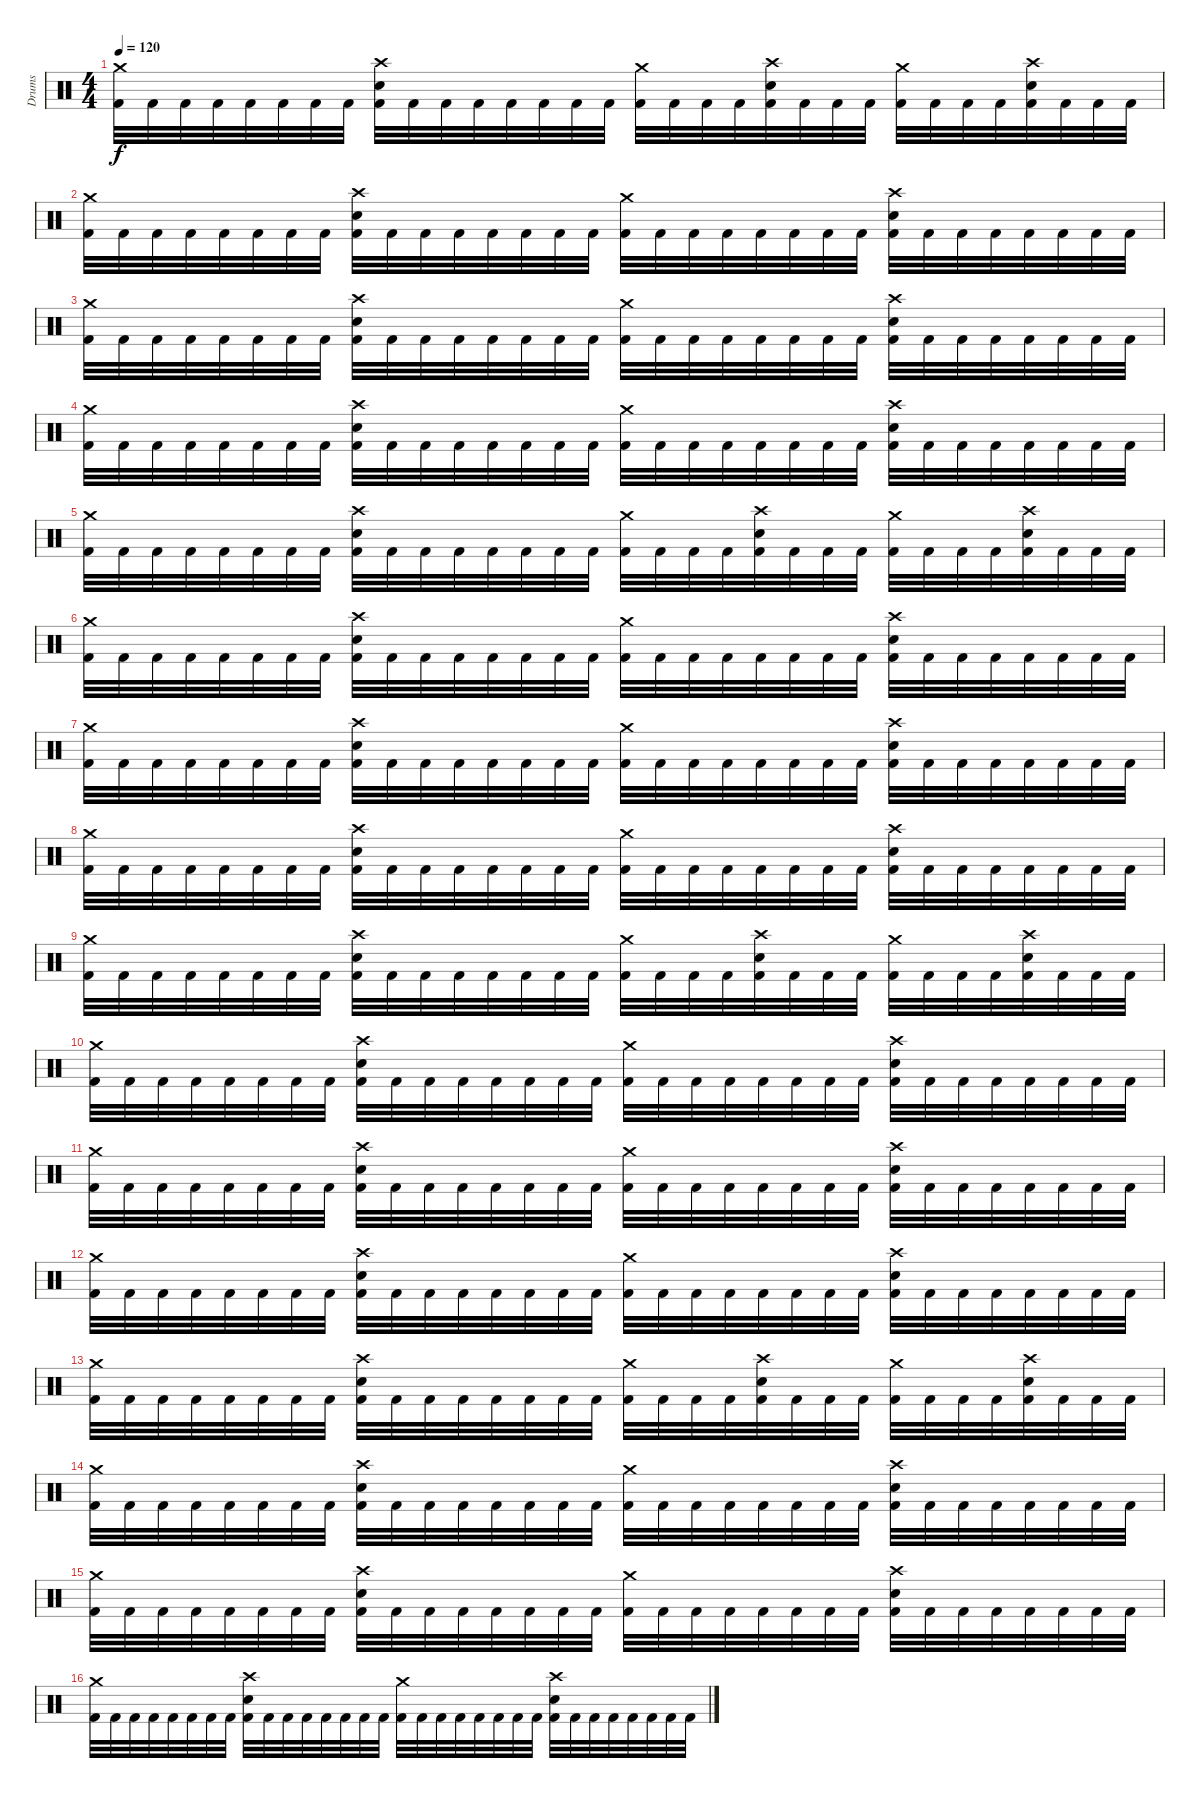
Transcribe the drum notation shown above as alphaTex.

\track ("Drums" "Drums") {instrument percussion}
\staff {score}
\articulation defaults
\ts (4 4)
\tempo 120
\clef neutral
\ks c
("Kick (hit) 2" "Crash medium (hit)").32{dy f} "Kick (hit) 2".32 "Kick (hit) 2".32 "Kick (hit) 2".32 "Kick (hit) 2".32 "Kick (hit) 2".32 "Kick (hit) 2".32 "Kick (hit) 2".32 ("Kick (hit) 2" "Electric Snare (hit)" "Crash high (hit)").32 "Kick (hit) 2".32 "Kick (hit) 2".32 "Kick (hit) 2".32 "Kick (hit) 2".32 "Kick (hit) 2".32 "Kick (hit) 2".32 "Kick (hit) 2".32 ("Kick (hit) 2" "Crash medium (hit)").32 "Kick (hit) 2".32 "Kick (hit) 2".32 "Kick (hit) 2".32 ("Kick (hit) 2" "Electric Snare (hit)" "Crash high (hit)").32 "Kick (hit) 2".32 "Kick (hit) 2".32 "Kick (hit) 2".32 ("Kick (hit) 2" "Crash medium (hit)").32 "Kick (hit) 2".32 "Kick (hit) 2".32 "Kick (hit) 2".32 ("Kick (hit) 2" "Electric Snare (hit)" "Crash high (hit)").32 "Kick (hit) 2".32 "Kick (hit) 2".32 "Kick (hit) 2".32 |
("Kick (hit) 2" "Crash medium (hit)").32 "Kick (hit) 2".32 "Kick (hit) 2".32 "Kick (hit) 2".32 "Kick (hit) 2".32 "Kick (hit) 2".32 "Kick (hit) 2".32 "Kick (hit) 2".32 ("Kick (hit) 2" "Electric Snare (hit)" "Crash high (hit)").32 "Kick (hit) 2".32 "Kick (hit) 2".32 "Kick (hit) 2".32 "Kick (hit) 2".32 "Kick (hit) 2".32 "Kick (hit) 2".32 "Kick (hit) 2".32 ("Kick (hit) 2" "Crash medium (hit)").32 "Kick (hit) 2".32 "Kick (hit) 2".32 "Kick (hit) 2".32 "Kick (hit) 2".32 "Kick (hit) 2".32 "Kick (hit) 2".32 "Kick (hit) 2".32 ("Kick (hit) 2" "Electric Snare (hit)" "Crash high (hit)").32 "Kick (hit) 2".32 "Kick (hit) 2".32 "Kick (hit) 2".32 "Kick (hit) 2".32 "Kick (hit) 2".32 "Kick (hit) 2".32 "Kick (hit) 2".32 |
("Kick (hit) 2" "Crash medium (hit)").32 "Kick (hit) 2".32 "Kick (hit) 2".32 "Kick (hit) 2".32 "Kick (hit) 2".32 "Kick (hit) 2".32 "Kick (hit) 2".32 "Kick (hit) 2".32 ("Kick (hit) 2" "Electric Snare (hit)" "Crash high (hit)").32 "Kick (hit) 2".32 "Kick (hit) 2".32 "Kick (hit) 2".32 "Kick (hit) 2".32 "Kick (hit) 2".32 "Kick (hit) 2".32 "Kick (hit) 2".32 ("Kick (hit) 2" "Crash medium (hit)").32 "Kick (hit) 2".32 "Kick (hit) 2".32 "Kick (hit) 2".32 "Kick (hit) 2".32 "Kick (hit) 2".32 "Kick (hit) 2".32 "Kick (hit) 2".32 ("Kick (hit) 2" "Electric Snare (hit)" "Crash high (hit)").32 "Kick (hit) 2".32 "Kick (hit) 2".32 "Kick (hit) 2".32 "Kick (hit) 2".32 "Kick (hit) 2".32 "Kick (hit) 2".32 "Kick (hit) 2".32 |
("Kick (hit) 2" "Crash medium (hit)").32 "Kick (hit) 2".32 "Kick (hit) 2".32 "Kick (hit) 2".32 "Kick (hit) 2".32 "Kick (hit) 2".32 "Kick (hit) 2".32 "Kick (hit) 2".32 ("Kick (hit) 2" "Electric Snare (hit)" "Crash high (hit)").32 "Kick (hit) 2".32 "Kick (hit) 2".32 "Kick (hit) 2".32 "Kick (hit) 2".32 "Kick (hit) 2".32 "Kick (hit) 2".32 "Kick (hit) 2".32 ("Kick (hit) 2" "Crash medium (hit)").32 "Kick (hit) 2".32 "Kick (hit) 2".32 "Kick (hit) 2".32 "Kick (hit) 2".32 "Kick (hit) 2".32 "Kick (hit) 2".32 "Kick (hit) 2".32 ("Kick (hit) 2" "Electric Snare (hit)" "Crash high (hit)").32 "Kick (hit) 2".32 "Kick (hit) 2".32 "Kick (hit) 2".32 "Kick (hit) 2".32 "Kick (hit) 2".32 "Kick (hit) 2".32 "Kick (hit) 2".32 |
("Kick (hit) 2" "Crash medium (hit)").32 "Kick (hit) 2".32 "Kick (hit) 2".32 "Kick (hit) 2".32 "Kick (hit) 2".32 "Kick (hit) 2".32 "Kick (hit) 2".32 "Kick (hit) 2".32 ("Kick (hit) 2" "Electric Snare (hit)" "Crash high (hit)").32 "Kick (hit) 2".32 "Kick (hit) 2".32 "Kick (hit) 2".32 "Kick (hit) 2".32 "Kick (hit) 2".32 "Kick (hit) 2".32 "Kick (hit) 2".32 ("Kick (hit) 2" "Crash medium (hit)").32 "Kick (hit) 2".32 "Kick (hit) 2".32 "Kick (hit) 2".32 ("Kick (hit) 2" "Electric Snare (hit)" "Crash high (hit)").32 "Kick (hit) 2".32 "Kick (hit) 2".32 "Kick (hit) 2".32 ("Kick (hit) 2" "Crash medium (hit)").32 "Kick (hit) 2".32 "Kick (hit) 2".32 "Kick (hit) 2".32 ("Kick (hit) 2" "Electric Snare (hit)" "Crash high (hit)").32 "Kick (hit) 2".32 "Kick (hit) 2".32 "Kick (hit) 2".32 |
("Kick (hit) 2" "Crash medium (hit)").32 "Kick (hit) 2".32 "Kick (hit) 2".32 "Kick (hit) 2".32 "Kick (hit) 2".32 "Kick (hit) 2".32 "Kick (hit) 2".32 "Kick (hit) 2".32 ("Kick (hit) 2" "Electric Snare (hit)" "Crash high (hit)").32 "Kick (hit) 2".32 "Kick (hit) 2".32 "Kick (hit) 2".32 "Kick (hit) 2".32 "Kick (hit) 2".32 "Kick (hit) 2".32 "Kick (hit) 2".32 ("Kick (hit) 2" "Crash medium (hit)").32 "Kick (hit) 2".32 "Kick (hit) 2".32 "Kick (hit) 2".32 "Kick (hit) 2".32 "Kick (hit) 2".32 "Kick (hit) 2".32 "Kick (hit) 2".32 ("Kick (hit) 2" "Electric Snare (hit)" "Crash high (hit)").32 "Kick (hit) 2".32 "Kick (hit) 2".32 "Kick (hit) 2".32 "Kick (hit) 2".32 "Kick (hit) 2".32 "Kick (hit) 2".32 "Kick (hit) 2".32 |
("Kick (hit) 2" "Crash medium (hit)").32 "Kick (hit) 2".32 "Kick (hit) 2".32 "Kick (hit) 2".32 "Kick (hit) 2".32 "Kick (hit) 2".32 "Kick (hit) 2".32 "Kick (hit) 2".32 ("Kick (hit) 2" "Electric Snare (hit)" "Crash high (hit)").32 "Kick (hit) 2".32 "Kick (hit) 2".32 "Kick (hit) 2".32 "Kick (hit) 2".32 "Kick (hit) 2".32 "Kick (hit) 2".32 "Kick (hit) 2".32 ("Kick (hit) 2" "Crash medium (hit)").32 "Kick (hit) 2".32 "Kick (hit) 2".32 "Kick (hit) 2".32 "Kick (hit) 2".32 "Kick (hit) 2".32 "Kick (hit) 2".32 "Kick (hit) 2".32 ("Kick (hit) 2" "Electric Snare (hit)" "Crash high (hit)").32 "Kick (hit) 2".32 "Kick (hit) 2".32 "Kick (hit) 2".32 "Kick (hit) 2".32 "Kick (hit) 2".32 "Kick (hit) 2".32 "Kick (hit) 2".32 |
("Kick (hit) 2" "Crash medium (hit)").32 "Kick (hit) 2".32 "Kick (hit) 2".32 "Kick (hit) 2".32 "Kick (hit) 2".32 "Kick (hit) 2".32 "Kick (hit) 2".32 "Kick (hit) 2".32 ("Kick (hit) 2" "Electric Snare (hit)" "Crash high (hit)").32 "Kick (hit) 2".32 "Kick (hit) 2".32 "Kick (hit) 2".32 "Kick (hit) 2".32 "Kick (hit) 2".32 "Kick (hit) 2".32 "Kick (hit) 2".32 ("Kick (hit) 2" "Crash medium (hit)").32 "Kick (hit) 2".32 "Kick (hit) 2".32 "Kick (hit) 2".32 "Kick (hit) 2".32 "Kick (hit) 2".32 "Kick (hit) 2".32 "Kick (hit) 2".32 ("Kick (hit) 2" "Electric Snare (hit)" "Crash high (hit)").32 "Kick (hit) 2".32 "Kick (hit) 2".32 "Kick (hit) 2".32 "Kick (hit) 2".32 "Kick (hit) 2".32 "Kick (hit) 2".32 "Kick (hit) 2".32 |
("Kick (hit) 2" "Crash medium (hit)").32 "Kick (hit) 2".32 "Kick (hit) 2".32 "Kick (hit) 2".32 "Kick (hit) 2".32 "Kick (hit) 2".32 "Kick (hit) 2".32 "Kick (hit) 2".32 ("Kick (hit) 2" "Electric Snare (hit)" "Crash high (hit)").32 "Kick (hit) 2".32 "Kick (hit) 2".32 "Kick (hit) 2".32 "Kick (hit) 2".32 "Kick (hit) 2".32 "Kick (hit) 2".32 "Kick (hit) 2".32 ("Kick (hit) 2" "Crash medium (hit)").32 "Kick (hit) 2".32 "Kick (hit) 2".32 "Kick (hit) 2".32 ("Kick (hit) 2" "Electric Snare (hit)" "Crash high (hit)").32 "Kick (hit) 2".32 "Kick (hit) 2".32 "Kick (hit) 2".32 ("Kick (hit) 2" "Crash medium (hit)").32 "Kick (hit) 2".32 "Kick (hit) 2".32 "Kick (hit) 2".32 ("Kick (hit) 2" "Electric Snare (hit)" "Crash high (hit)").32 "Kick (hit) 2".32 "Kick (hit) 2".32 "Kick (hit) 2".32 |
("Kick (hit) 2" "Crash medium (hit)").32 "Kick (hit) 2".32 "Kick (hit) 2".32 "Kick (hit) 2".32 "Kick (hit) 2".32 "Kick (hit) 2".32 "Kick (hit) 2".32 "Kick (hit) 2".32 ("Kick (hit) 2" "Electric Snare (hit)" "Crash high (hit)").32 "Kick (hit) 2".32 "Kick (hit) 2".32 "Kick (hit) 2".32 "Kick (hit) 2".32 "Kick (hit) 2".32 "Kick (hit) 2".32 "Kick (hit) 2".32 ("Kick (hit) 2" "Crash medium (hit)").32 "Kick (hit) 2".32 "Kick (hit) 2".32 "Kick (hit) 2".32 "Kick (hit) 2".32 "Kick (hit) 2".32 "Kick (hit) 2".32 "Kick (hit) 2".32 ("Kick (hit) 2" "Electric Snare (hit)" "Crash high (hit)").32 "Kick (hit) 2".32 "Kick (hit) 2".32 "Kick (hit) 2".32 "Kick (hit) 2".32 "Kick (hit) 2".32 "Kick (hit) 2".32 "Kick (hit) 2".32 |
("Kick (hit) 2" "Crash medium (hit)").32 "Kick (hit) 2".32 "Kick (hit) 2".32 "Kick (hit) 2".32 "Kick (hit) 2".32 "Kick (hit) 2".32 "Kick (hit) 2".32 "Kick (hit) 2".32 ("Kick (hit) 2" "Electric Snare (hit)" "Crash high (hit)").32 "Kick (hit) 2".32 "Kick (hit) 2".32 "Kick (hit) 2".32 "Kick (hit) 2".32 "Kick (hit) 2".32 "Kick (hit) 2".32 "Kick (hit) 2".32 ("Kick (hit) 2" "Crash medium (hit)").32 "Kick (hit) 2".32 "Kick (hit) 2".32 "Kick (hit) 2".32 "Kick (hit) 2".32 "Kick (hit) 2".32 "Kick (hit) 2".32 "Kick (hit) 2".32 ("Kick (hit) 2" "Electric Snare (hit)" "Crash high (hit)").32 "Kick (hit) 2".32 "Kick (hit) 2".32 "Kick (hit) 2".32 "Kick (hit) 2".32 "Kick (hit) 2".32 "Kick (hit) 2".32 "Kick (hit) 2".32 |
("Kick (hit) 2" "Crash medium (hit)").32 "Kick (hit) 2".32 "Kick (hit) 2".32 "Kick (hit) 2".32 "Kick (hit) 2".32 "Kick (hit) 2".32 "Kick (hit) 2".32 "Kick (hit) 2".32 ("Kick (hit) 2" "Electric Snare (hit)" "Crash high (hit)").32 "Kick (hit) 2".32 "Kick (hit) 2".32 "Kick (hit) 2".32 "Kick (hit) 2".32 "Kick (hit) 2".32 "Kick (hit) 2".32 "Kick (hit) 2".32 ("Kick (hit) 2" "Crash medium (hit)").32 "Kick (hit) 2".32 "Kick (hit) 2".32 "Kick (hit) 2".32 "Kick (hit) 2".32 "Kick (hit) 2".32 "Kick (hit) 2".32 "Kick (hit) 2".32 ("Kick (hit) 2" "Electric Snare (hit)" "Crash high (hit)").32 "Kick (hit) 2".32 "Kick (hit) 2".32 "Kick (hit) 2".32 "Kick (hit) 2".32 "Kick (hit) 2".32 "Kick (hit) 2".32 "Kick (hit) 2".32 |
("Kick (hit) 2" "Crash medium (hit)").32 "Kick (hit) 2".32 "Kick (hit) 2".32 "Kick (hit) 2".32 "Kick (hit) 2".32 "Kick (hit) 2".32 "Kick (hit) 2".32 "Kick (hit) 2".32 ("Kick (hit) 2" "Electric Snare (hit)" "Crash high (hit)").32 "Kick (hit) 2".32 "Kick (hit) 2".32 "Kick (hit) 2".32 "Kick (hit) 2".32 "Kick (hit) 2".32 "Kick (hit) 2".32 "Kick (hit) 2".32 ("Kick (hit) 2" "Crash medium (hit)").32 "Kick (hit) 2".32 "Kick (hit) 2".32 "Kick (hit) 2".32 ("Kick (hit) 2" "Electric Snare (hit)" "Crash high (hit)").32 "Kick (hit) 2".32 "Kick (hit) 2".32 "Kick (hit) 2".32 ("Kick (hit) 2" "Crash medium (hit)").32 "Kick (hit) 2".32 "Kick (hit) 2".32 "Kick (hit) 2".32 ("Kick (hit) 2" "Electric Snare (hit)" "Crash high (hit)").32 "Kick (hit) 2".32 "Kick (hit) 2".32 "Kick (hit) 2".32 |
("Kick (hit) 2" "Crash medium (hit)").32 "Kick (hit) 2".32 "Kick (hit) 2".32 "Kick (hit) 2".32 "Kick (hit) 2".32 "Kick (hit) 2".32 "Kick (hit) 2".32 "Kick (hit) 2".32 ("Kick (hit) 2" "Electric Snare (hit)" "Crash high (hit)").32 "Kick (hit) 2".32 "Kick (hit) 2".32 "Kick (hit) 2".32 "Kick (hit) 2".32 "Kick (hit) 2".32 "Kick (hit) 2".32 "Kick (hit) 2".32 ("Kick (hit) 2" "Crash medium (hit)").32 "Kick (hit) 2".32 "Kick (hit) 2".32 "Kick (hit) 2".32 "Kick (hit) 2".32 "Kick (hit) 2".32 "Kick (hit) 2".32 "Kick (hit) 2".32 ("Kick (hit) 2" "Electric Snare (hit)" "Crash high (hit)").32 "Kick (hit) 2".32 "Kick (hit) 2".32 "Kick (hit) 2".32 "Kick (hit) 2".32 "Kick (hit) 2".32 "Kick (hit) 2".32 "Kick (hit) 2".32 |
("Kick (hit) 2" "Crash medium (hit)").32 "Kick (hit) 2".32 "Kick (hit) 2".32 "Kick (hit) 2".32 "Kick (hit) 2".32 "Kick (hit) 2".32 "Kick (hit) 2".32 "Kick (hit) 2".32 ("Kick (hit) 2" "Electric Snare (hit)" "Crash high (hit)").32 "Kick (hit) 2".32 "Kick (hit) 2".32 "Kick (hit) 2".32 "Kick (hit) 2".32 "Kick (hit) 2".32 "Kick (hit) 2".32 "Kick (hit) 2".32 ("Kick (hit) 2" "Crash medium (hit)").32 "Kick (hit) 2".32 "Kick (hit) 2".32 "Kick (hit) 2".32 "Kick (hit) 2".32 "Kick (hit) 2".32 "Kick (hit) 2".32 "Kick (hit) 2".32 ("Kick (hit) 2" "Electric Snare (hit)" "Crash high (hit)").32 "Kick (hit) 2".32 "Kick (hit) 2".32 "Kick (hit) 2".32 "Kick (hit) 2".32 "Kick (hit) 2".32 "Kick (hit) 2".32 "Kick (hit) 2".32 |
("Kick (hit) 2" "Crash medium (hit)").32 "Kick (hit) 2".32 "Kick (hit) 2".32 "Kick (hit) 2".32 "Kick (hit) 2".32 "Kick (hit) 2".32 "Kick (hit) 2".32 "Kick (hit) 2".32 ("Kick (hit) 2" "Electric Snare (hit)" "Crash high (hit)").32 "Kick (hit) 2".32 "Kick (hit) 2".32 "Kick (hit) 2".32 "Kick (hit) 2".32 "Kick (hit) 2".32 "Kick (hit) 2".32 "Kick (hit) 2".32 ("Kick (hit) 2" "Crash medium (hit)").32 "Kick (hit) 2".32 "Kick (hit) 2".32 "Kick (hit) 2".32 "Kick (hit) 2".32 "Kick (hit) 2".32 "Kick (hit) 2".32 "Kick (hit) 2".32 ("Kick (hit) 2" "Electric Snare (hit)" "Crash high (hit)").32 "Kick (hit) 2".32 "Kick (hit) 2".32 "Kick (hit) 2".32 "Kick (hit) 2".32 "Kick (hit) 2".32 "Kick (hit) 2".32 "Kick (hit) 2".32
